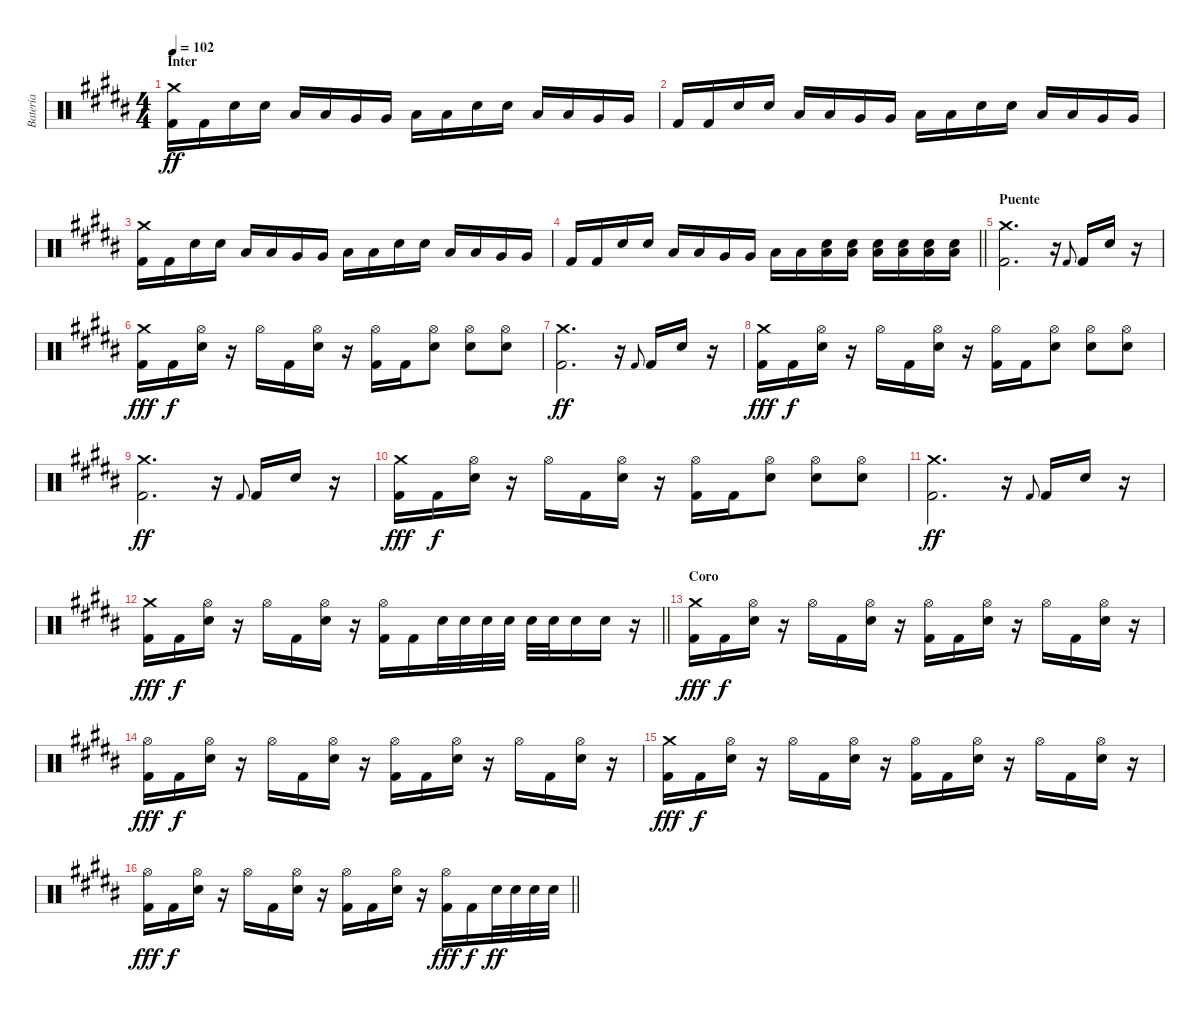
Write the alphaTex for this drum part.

\track ("Bateria" "Bateria") {instrument percussion}
\staff {score}
\articulation defaults
\ts (4 4)
\section ("" "Inter")
\tempo 102
\clef neutral
\ks b
("Crash medium (hit)" "Kick (hit) 2").16{dy ff} "Kick (hit) 2".16 "Snare (hit) 2".16 "Snare (hit) 2".16 "Low Tom (hit)".16 "Low Tom (hit)".16 "Very Low Tom (hit)".16 "Very Low Tom (hit)".16 "Low Floor Tom (hit)".16 "Low Floor Tom (hit)".16 "Snare (hit) 2".16 "Snare (hit) 2".16 "Low Tom (hit)".16 "Low Tom (hit)".16 "Very Low Tom (hit)".16 "Very Low Tom (hit)".16 |
"Kick (hit) 2".16 "Kick (hit) 2".16 "Snare (hit) 2".16 "Snare (hit) 2".16 "Low Tom (hit)".16 "Low Tom (hit)".16 "Very Low Tom (hit)".16 "Very Low Tom (hit)".16 "Low Floor Tom (hit)".16 "Low Floor Tom (hit)".16 "Snare (hit) 2".16 "Snare (hit) 2".16 "Low Tom (hit)".16 "Low Tom (hit)".16 "Very Low Tom (hit)".16 "Very Low Tom (hit)".16 |
("Crash medium (hit)" "Kick (hit) 2").16 "Kick (hit) 2".16 "Snare (hit) 2".16 "Snare (hit) 2".16 "Low Tom (hit)".16 "Low Tom (hit)".16 "Very Low Tom (hit)".16 "Very Low Tom (hit)".16 "Low Floor Tom (hit)".16 "Low Floor Tom (hit)".16 "Snare (hit) 2".16 "Snare (hit) 2".16 "Low Tom (hit)".16 "Low Tom (hit)".16 "Very Low Tom (hit)".16 "Very Low Tom (hit)".16 |
\barLineRight lightlight "Kick (hit) 2".16 "Kick (hit) 2".16 "Snare (hit) 2".16 "Snare (hit) 2".16 "Low Tom (hit)".16 "Low Tom (hit)".16 "Very Low Tom (hit)".16 "Very Low Tom (hit)".16 "Low Floor Tom (hit)".16 "Low Floor Tom (hit)".16
("Low Floor Tom (hit)" "Snare (hit) 2").16 ("Low Floor Tom (hit)" "Snare (hit) 2").16 ("Low Floor Tom (hit)" "Snare (hit) 2").16 ("Low Floor Tom (hit)" "Snare (hit) 2").16 ("Low Floor Tom (hit)" "Snare (hit) 2").16 ("Low Floor Tom (hit)" "Snare (hit) 2").16 |
\section ("" "Puente")
("Crash medium (hit)" "Kick (hit) 2").2{d} r.16 "Kick (hit) 2".8{gr onbeat} "Kick (hit) 2".16 "Electric Snare (hit)".16 r.16 |
("Crash medium (hit)" "Kick (hit) 2").16{dy fff} "Kick (hit) 2".16{dy f} ("Hi-Hat (open)" "Snare (hit) 2").16 r.16 "Hi-Hat (open)".16 "Kick (hit) 2".16 ("Hi-Hat (open)" "Snare (hit) 2").16 r.16 ("Hi-Hat (open)" "Kick (hit) 2").16 "Kick (hit) 2".16 ("Hi-Hat (open)" "Snare (hit) 2").8 ("Hi-Hat (open)" "Snare (hit) 2").8 ("Hi-Hat (open)" "Snare (hit) 2").8 |
("Crash medium (hit)" "Kick (hit) 2").2{d dy ff} r.16 "Kick (hit) 2".8{gr onbeat} "Kick (hit) 2".16 "Electric Snare (hit)".16 r.16 |
("Crash medium (hit)" "Kick (hit) 2").16{dy fff} "Kick (hit) 2".16{dy f} ("Hi-Hat (open)" "Snare (hit) 2").16 r.16 "Hi-Hat (open)".16 "Kick (hit) 2".16 ("Hi-Hat (open)" "Snare (hit) 2").16 r.16 ("Hi-Hat (open)" "Kick (hit) 2").16 "Kick (hit) 2".16 ("Hi-Hat (open)" "Snare (hit) 2").8 ("Hi-Hat (open)" "Snare (hit) 2").8 ("Hi-Hat (open)" "Snare (hit) 2").8 |
("Crash medium (hit)" "Kick (hit) 2").2{d dy ff} r.16 "Kick (hit) 2".8{gr onbeat} "Kick (hit) 2".16 "Electric Snare (hit)".16 r.16 |
("Crash medium (hit)" "Kick (hit) 2").16{dy fff} "Kick (hit) 2".16{dy f} ("Hi-Hat (open)" "Snare (hit) 2").16 r.16 "Hi-Hat (open)".16 "Kick (hit) 2".16 ("Hi-Hat (open)" "Snare (hit) 2").16 r.16 ("Hi-Hat (open)" "Kick (hit) 2").16 "Kick (hit) 2".16 ("Hi-Hat (open)" "Snare (hit) 2").8 ("Hi-Hat (open)" "Snare (hit) 2").8 ("Hi-Hat (open)" "Snare (hit) 2").8 |
("Crash medium (hit)" "Kick (hit) 2").2{d dy ff} r.16 "Kick (hit) 2".8{gr onbeat} "Kick (hit) 2".16 "Electric Snare (hit)".16 r.16 |
\barLineRight lightlight
("Crash medium (hit)" "Kick (hit) 2").16{dy fff} "Kick (hit) 2".16{dy f} ("Hi-Hat (open)" "Snare (hit) 2").16 r.16 "Hi-Hat (open)".16 "Kick (hit) 2".16 ("Hi-Hat (open)" "Snare (hit) 2").16 r.16 ("Hi-Hat (open)" "Kick (hit) 2").16 "Kick (hit) 2".16 "Snare (hit) 2".32 "Snare (hit) 2".32 "Snare (hit) 2".32 "Snare (hit) 2".32 "Snare (hit) 2".32 "Snare (hit) 2".32 "Snare (hit) 2".16 "Snare (hit) 2".16 r.16 |
\section ("" "Coro")
("Crash medium (hit)" "Kick (hit) 2").16{dy fff} "Kick (hit) 2".16{dy f} ("Hi-Hat (open)" "Electric Snare (hit)").16 r.16 "Hi-Hat (open)".16 "Kick (hit) 2".16 ("Hi-Hat (open)" "Electric Snare (hit)").16 r.16 ("Hi-Hat (open)" "Kick (hit) 2").16 "Kick (hit) 2".16 ("Hi-Hat (open)" "Electric Snare (hit)").16 r.16 "Hi-Hat (open)".16 "Kick (hit) 2".16 ("Hi-Hat (open)" "Electric Snare (hit)").16 r.16 |
("Hi-Hat (open)" "Kick (hit) 2").16{dy fff} "Kick (hit) 2".16{dy f} ("Hi-Hat (open)" "Snare (hit) 2").16 r.16 "Hi-Hat (open)".16 "Kick (hit) 2".16 ("Hi-Hat (open)" "Snare (hit) 2").16 r.16 ("Hi-Hat (open)" "Kick (hit) 2").16 "Kick (hit) 2".16 ("Hi-Hat (open)" "Snare (hit) 2").16 r.16 "Hi-Hat (open)".16 "Kick (hit) 2".16 ("Hi-Hat (open)" "Snare (hit) 2").16 r.16 |
("Crash medium (hit)" "Kick (hit) 2").16{dy fff} "Kick (hit) 2".16{dy f} ("Hi-Hat (open)" "Snare (hit) 2").16 r.16 "Hi-Hat (open)".16 "Kick (hit) 2".16 ("Hi-Hat (open)" "Snare (hit) 2").16 r.16 ("Hi-Hat (open)" "Kick (hit) 2").16 "Kick (hit) 2".16 ("Hi-Hat (open)" "Snare (hit) 2").16 r.16 "Hi-Hat (open)".16 "Kick (hit) 2".16 ("Hi-Hat (open)" "Snare (hit) 2").16 r.16 |
\barLineRight lightlight
("Hi-Hat (open)" "Kick (hit) 2").16{dy fff} "Kick (hit) 2".16{dy f} ("Hi-Hat (open)" "Snare (hit) 2").16 r.16 "Hi-Hat (open)".16 "Kick (hit) 2".16 ("Hi-Hat (open)" "Snare (hit) 2").16 r.16 ("Hi-Hat (open)" "Kick (hit) 2").16 "Kick (hit) 2".16 ("Hi-Hat (open)" "Snare (hit) 2").16 r.16 ("Hi-Hat (open)" "Kick (hit) 2").16{dy fff} "Kick (hit) 2".16{dy f} "Snare (hit) 2".32{dy ff} "Snare (hit) 2".32 "Snare (hit) 2".32 "Snare (hit) 2".32
